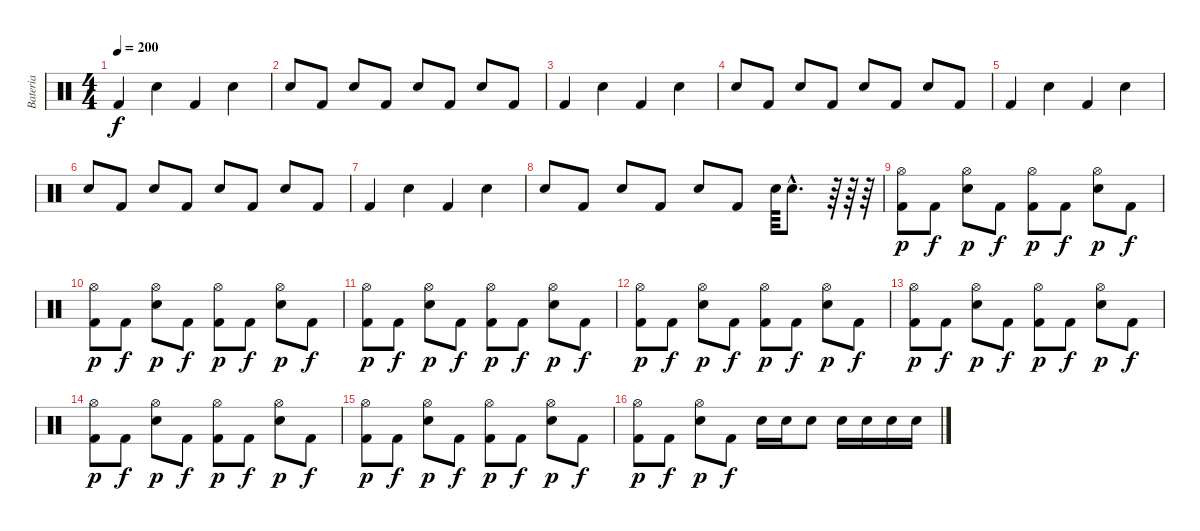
\track ("Bateria" "Bateria") {instrument percussion}
\staff {score}
\articulation defaults
\ts (4 4)
\tempo 200
\clef neutral
\ks c "Kick (hit) 2".4{dy f} "Electric Snare (hit)".4 "Kick (hit) 2".4 "Electric Snare (hit)".4
|
"Electric Snare (hit)".8 "Kick (hit) 2".8 "Electric Snare (hit)".8 "Kick (hit) 2".8 "Electric Snare (hit)".8 "Kick (hit) 2".8 "Electric Snare (hit)".8 "Kick (hit) 2".8 |
"Kick (hit) 2".4 "Electric Snare (hit)".4 "Kick (hit) 2".4 "Electric Snare (hit)".4 |
"Electric Snare (hit)".8 "Kick (hit) 2".8 "Electric Snare (hit)".8 "Kick (hit) 2".8 "Electric Snare (hit)".8 "Kick (hit) 2".8 "Electric Snare (hit)".8 "Kick (hit) 2".8 |
"Kick (hit) 2".4 "Electric Snare (hit)".4 "Kick (hit) 2".4 "Electric Snare (hit)".4 |
"Electric Snare (hit)".8 "Kick (hit) 2".8 "Electric Snare (hit)".8 "Kick (hit) 2".8 "Electric Snare (hit)".8 "Kick (hit) 2".8 "Electric Snare (hit)".8 "Kick (hit) 2".8 |
"Kick (hit) 2".4 "Electric Snare (hit)".4 "Kick (hit) 2".4 "Electric Snare (hit)".4 |
"Electric Snare (hit)".8 "Kick (hit) 2".8 "Electric Snare (hit)".8 "Kick (hit) 2".8 "Electric Snare (hit)".8 "Kick (hit) 2".8 "Electric Snare (hit)".64 "Electric Snare (hit)"{hac}.8{d} r.64 r.64 r.64 |
("Kick (hit) 2" "Hi-Hat (open)").8{dy p} "Kick (hit) 2".8{dy f} ("Electric Snare (hit)" "Hi-Hat (open)").8{dy p} "Kick (hit) 2".8{dy f} ("Kick (hit) 2" "Hi-Hat (open)").8{dy p} "Kick (hit) 2".8{dy f} ("Electric Snare (hit)" "Hi-Hat (open)").8{dy p} "Kick (hit) 2".8{dy f} |
("Kick (hit) 2" "Hi-Hat (open)").8{dy p} "Kick (hit) 2".8{dy f} ("Electric Snare (hit)" "Hi-Hat (open)").8{dy p} "Kick (hit) 2".8{dy f} ("Kick (hit) 2" "Hi-Hat (open)").8{dy p} "Kick (hit) 2".8{dy f} ("Electric Snare (hit)" "Hi-Hat (open)").8{dy p} "Kick (hit) 2".8{dy f} |
("Kick (hit) 2" "Hi-Hat (open)").8{dy p} "Kick (hit) 2".8{dy f} ("Electric Snare (hit)" "Hi-Hat (open)").8{dy p} "Kick (hit) 2".8{dy f} ("Kick (hit) 2" "Hi-Hat (open)").8{dy p} "Kick (hit) 2".8{dy f} ("Electric Snare (hit)" "Hi-Hat (open)").8{dy p} "Kick (hit) 2".8{dy f} |
("Kick (hit) 2" "Hi-Hat (open)").8{dy p} "Kick (hit) 2".8{dy f} ("Electric Snare (hit)" "Hi-Hat (open)").8{dy p} "Kick (hit) 2".8{dy f} ("Kick (hit) 2" "Hi-Hat (open)").8{dy p} "Kick (hit) 2".8{dy f} ("Electric Snare (hit)" "Hi-Hat (open)").8{dy p} "Kick (hit) 2".8{dy f} |
("Kick (hit) 2" "Hi-Hat (open)").8{dy p} "Kick (hit) 2".8{dy f} ("Electric Snare (hit)" "Hi-Hat (open)").8{dy p} "Kick (hit) 2".8{dy f} ("Kick (hit) 2" "Hi-Hat (open)").8{dy p} "Kick (hit) 2".8{dy f} ("Electric Snare (hit)" "Hi-Hat (open)").8{dy p} "Kick (hit) 2".8{dy f} |
("Kick (hit) 2" "Hi-Hat (open)").8{dy p} "Kick (hit) 2".8{dy f} ("Electric Snare (hit)" "Hi-Hat (open)").8{dy p} "Kick (hit) 2".8{dy f} ("Kick (hit) 2" "Hi-Hat (open)").8{dy p} "Kick (hit) 2".8{dy f} ("Electric Snare (hit)" "Hi-Hat (open)").8{dy p} "Kick (hit) 2".8{dy f} |
("Kick (hit) 2" "Hi-Hat (open)").8{dy p} "Kick (hit) 2".8{dy f} ("Electric Snare (hit)" "Hi-Hat (open)").8{dy p} "Kick (hit) 2".8{dy f} ("Kick (hit) 2" "Hi-Hat (open)").8{dy p} "Kick (hit) 2".8{dy f} ("Electric Snare (hit)" "Hi-Hat (open)").8{dy p} "Kick (hit) 2".8{dy f} |
("Kick (hit) 2" "Hi-Hat (open)").8{dy p} "Kick (hit) 2".8{dy f} ("Electric Snare (hit)" "Hi-Hat (open)").8{dy p} "Kick (hit) 2".8{dy f} "Electric Snare (hit)".16 "Electric Snare (hit)".16 "Electric Snare (hit)".8 "Electric Snare (hit)".16 "Electric Snare (hit)".16 "Electric Snare (hit)".16 "Electric Snare (hit)".16
